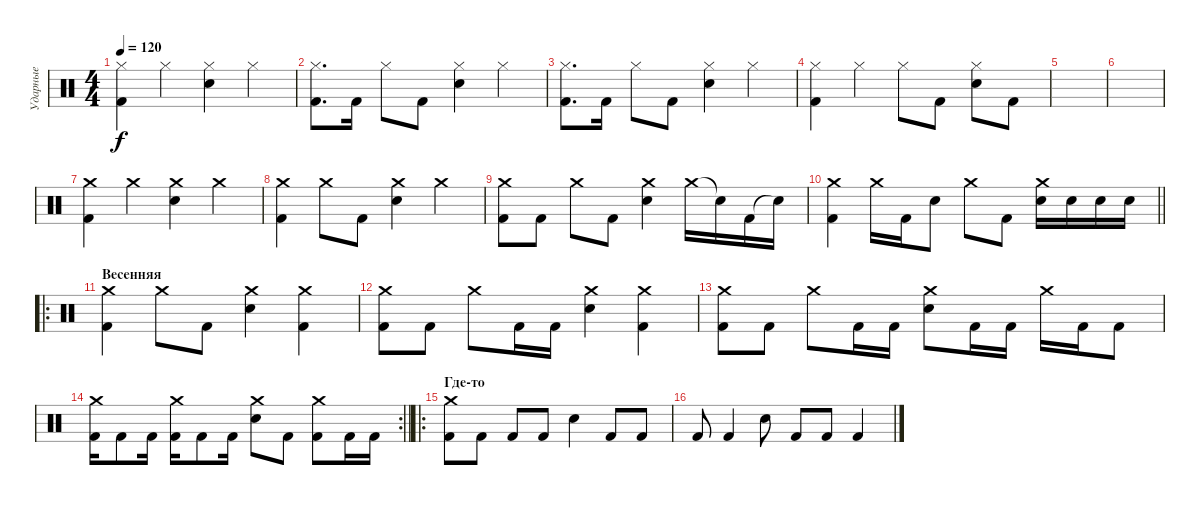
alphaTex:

\track ("Ударные" "Ударные") {instrument percussion}
\staff {score}
\articulation defaults
\ts (4 4)
\tempo 120
\clef neutral
\ks c
("Hi-Hat (closed)" "Kick (hit) 2").4{dy f} "Hi-Hat (closed)".4 ("Hi-Hat (closed)" "Electric Snare (hit)").4 "Hi-Hat (closed)".4 |
("Hi-Hat (closed)" "Kick (hit) 2").8{d} "Kick (hit) 2".16 "Hi-Hat (closed)".8 "Kick (hit) 2".8 ("Hi-Hat (closed)" "Electric Snare (hit)").4 "Hi-Hat (closed)".4 |
("Hi-Hat (closed)" "Kick (hit) 2").8{d} "Kick (hit) 2".16 "Hi-Hat (closed)".8 "Kick (hit) 2".8 ("Hi-Hat (closed)" "Electric Snare (hit)").4 "Hi-Hat (closed)".4 |
("Hi-Hat (closed)" "Kick (hit) 2").4 "Hi-Hat (closed)".4 "Hi-Hat (closed)".8 "Kick (hit) 2".8 ("Hi-Hat (closed)" "Electric Snare (hit)").8 "Kick (hit) 2".8 |
|
|
("Crash medium (hit)" "Kick (hit) 2").4 "Crash medium (hit)".4 ("Crash medium (hit)" "Electric Snare (hit)").4 "Crash medium (hit)".4 |
("Crash medium (hit)" "Kick (hit) 2").4 "Crash medium (hit)".8 "Kick (hit) 2".8 ("Crash medium (hit)" "Electric Snare (hit)").4 "Crash medium (hit)".4 |
("Crash medium (hit)" "Kick (hit) 2").8 "Kick (hit) 2".8 "Crash medium (hit)".8 "Kick (hit) 2".8 ("Crash medium (hit)" "Electric Snare (hit)").4 "Crash medium (hit)".16 "Snare (hit)"{t}.16 "Kick (hit) 2".16 "Snare (hit)"{t}.16 |
\barLineRight lightlight
("Crash medium (hit)" "Kick (hit) 2").4 "Crash medium (hit)".16 "Kick (hit) 2".16 "Electric Snare (hit)".8 "Crash medium (hit)".8 "Kick (hit) 2".8 ("Crash medium (hit)" "Electric Snare (hit)").16 "Electric Snare (hit)".16 "Electric Snare (hit)".16 "Electric Snare (hit)".16 |
\ro
\section ("" "Весенняя")
("Crash medium (hit)" "Kick (hit) 2").4 "Crash medium (hit)".8 "Kick (hit) 2".8 ("Crash medium (hit)" "Electric Snare (hit)").4 ("Crash medium (hit)" "Kick (hit) 2").4 |
("Crash medium (hit)" "Kick (hit) 2").8 "Kick (hit) 2".8 "Crash medium (hit)".8 "Kick (hit) 2".16 "Kick (hit) 2".16 ("Crash medium (hit)" "Electric Snare (hit)").4 ("Crash medium (hit)" "Kick (hit) 2").4 |
("Crash medium (hit)" "Kick (hit) 2").8 "Kick (hit) 2".8 "Crash medium (hit)".8 "Kick (hit) 2".16 "Kick (hit) 2".16 ("Crash medium (hit)" "Electric Snare (hit)").8 "Kick (hit) 2".16 "Kick (hit) 2".16 "Crash medium (hit)".16 "Kick (hit) 2".16 "Kick (hit) 2".8 |
\rc 2
\barLineRight lightlight
("Crash medium (hit)" "Kick (hit) 2").16 "Kick (hit) 2".8 "Kick (hit) 2".16 ("Crash medium (hit)" "Kick (hit) 2").16 "Kick (hit) 2".8 "Kick (hit) 2".16 ("Crash medium (hit)" "Electric Snare (hit)").8 "Kick (hit) 2".8 ("Crash medium (hit)" "Kick (hit) 2").8 "Kick (hit) 2".16 "Kick (hit) 2".16 |
\ro
\section ("" "Где-то")
("Crash medium (hit)" "Kick (hit) 2").8 "Kick (hit) 2".8 "Kick (hit) 2".8 "Kick (hit) 2".8 "Electric Snare (hit)".4 "Kick (hit) 2".8 "Kick (hit) 2".8 |
"Kick (hit) 2".8 "Kick (hit) 2".4 "Electric Snare (hit)".8 "Kick (hit) 2".8 "Kick (hit) 2".8 "Kick (hit) 2".4
